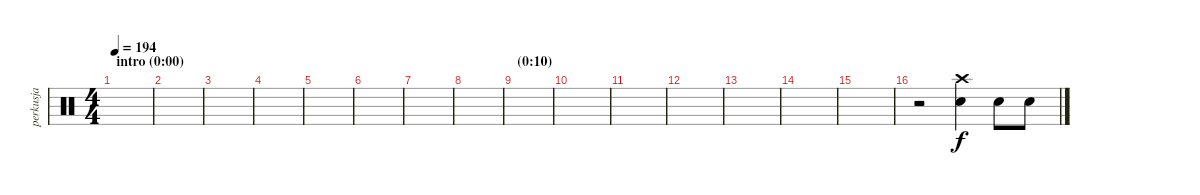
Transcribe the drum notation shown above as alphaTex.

\track ("perkusja" "perkusja") {instrument percussion}
\staff {score}
\articulation defaults
\ts (4 4)
\section ("" "intro (0:00)")
\tempo 194
\clef neutral
\ks c
|
|
|
|
|
|
|
|
\section ("" "(0:10)")
|
|
|
|
|
|
|
r.2 ("Crash high (hit)" "Snare (hit) 2").4 "Snare (hit) 2".8 "Snare (hit) 2".8
